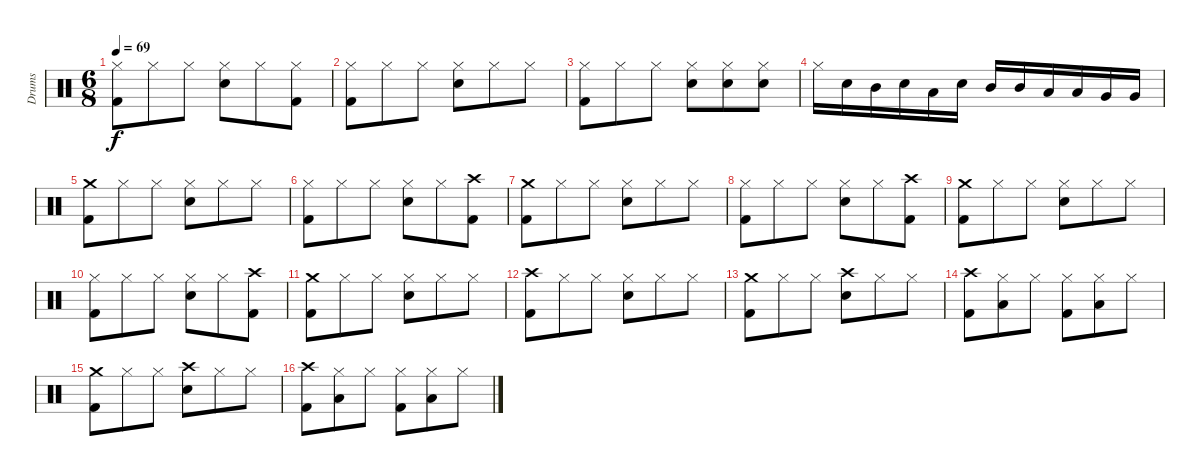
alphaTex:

\track ("Drums" "Drums") {instrument percussion}
\staff {score}
\articulation defaults
\ts (6 8)
\tempo 69
\clef neutral
\ks c
("Hi-Hat (closed)" "Kick (hit) 2").8{dy f} "Hi-Hat (closed)".8 "Hi-Hat (closed)".8 ("Hi-Hat (closed)" "Snare (hit) 2").8 "Hi-Hat (closed)".8 ("Hi-Hat (closed)" "Kick (hit) 2").8 |
("Hi-Hat (closed)" "Kick (hit) 2").8 "Hi-Hat (closed)".8 "Hi-Hat (closed)".8 ("Hi-Hat (closed)" "Snare (hit) 2").8 "Hi-Hat (closed)".8 "Hi-Hat (closed)".8 |
("Hi-Hat (closed)" "Kick (hit) 2").8 "Hi-Hat (closed)".8 "Hi-Hat (closed)".8 ("Hi-Hat (closed)" "Snare (hit) 2").8 ("Hi-Hat (closed)" "Snare (hit) 2").8 ("Hi-Hat (closed)" "Snare (hit) 2").8 |
"Hi-Hat (closed)".16 "Snare (hit) 2".16 "Mid Tom (hit)".16 "Snare (hit) 2".16 "Low Tom (hit)".16 "Snare (hit) 2".16 "Mid Tom (hit)".16 "Mid Tom (hit)".16 "Low Tom (hit)".16 "Low Tom (hit)".16 "Very Low Tom (hit)".16 "Very Low Tom (hit)".16 |
("Crash medium (hit)" "Kick (hit) 2").8 "Hi-Hat (closed)".8 "Hi-Hat (closed)".8 ("Hi-Hat (closed)" "Snare (hit) 2").8 "Hi-Hat (closed)".8 "Hi-Hat (closed)".8 |
("Hi-Hat (closed)" "Kick (hit) 2").8 "Hi-Hat (closed)".8 "Hi-Hat (closed)".8 ("Hi-Hat (closed)" "Snare (hit) 2").8 "Hi-Hat (closed)".8 ("Crash high (hit)" "Kick (hit) 2").8 |
("Crash medium (hit)" "Kick (hit) 2").8 "Hi-Hat (closed)".8 "Hi-Hat (closed)".8 ("Hi-Hat (closed)" "Snare (hit) 2").8 "Hi-Hat (closed)".8 "Hi-Hat (closed)".8 |
("Hi-Hat (closed)" "Kick (hit) 2").8 "Hi-Hat (closed)".8 "Hi-Hat (closed)".8 ("Hi-Hat (closed)" "Snare (hit) 2").8 "Hi-Hat (closed)".8 ("Crash high (hit)" "Kick (hit) 2").8 |
("Crash medium (hit)" "Kick (hit) 2").8 "Hi-Hat (closed)".8 "Hi-Hat (closed)".8 ("Hi-Hat (closed)" "Snare (hit) 2").8 "Hi-Hat (closed)".8 "Hi-Hat (closed)".8 |
("Hi-Hat (closed)" "Kick (hit) 2").8 "Hi-Hat (closed)".8 "Hi-Hat (closed)".8 ("Hi-Hat (closed)" "Snare (hit) 2").8 "Hi-Hat (closed)".8 ("Crash high (hit)" "Kick (hit) 2").8 |
("Crash medium (hit)" "Kick (hit) 2").8 "Hi-Hat (closed)".8 "Hi-Hat (closed)".8 ("Hi-Hat (closed)" "Snare (hit) 2").8 "Hi-Hat (closed)".8 "Hi-Hat (closed)".8 |
("Crash high (hit)" "Kick (hit) 2").8 "Hi-Hat (closed)".8 "Hi-Hat (closed)".8 ("Hi-Hat (closed)" "Snare (hit) 2").8 "Hi-Hat (closed)".8 "Hi-Hat (closed)".8 |
("Crash medium (hit)" "Kick (hit) 2").8 "Hi-Hat (closed)".8 "Hi-Hat (closed)".8 ("Crash high (hit)" "Snare (hit) 2").8 "Hi-Hat (closed)".8 "Hi-Hat (closed)".8 |
("Crash high (hit)" "Kick (hit) 2").8 ("Hi-Hat (closed)" "Low Tom (hit)").8 "Hi-Hat (closed)".8 ("Hi-Hat (closed)" "Kick (hit) 2").8 ("Hi-Hat (closed)" "Low Tom (hit)").8 "Hi-Hat (closed)".8 |
("Crash medium (hit)" "Kick (hit) 2").8 "Hi-Hat (closed)".8 "Hi-Hat (closed)".8 ("Crash high (hit)" "Snare (hit) 2").8 "Hi-Hat (closed)".8 "Hi-Hat (closed)".8 |
("Crash high (hit)" "Kick (hit) 2").8 ("Hi-Hat (closed)" "Low Tom (hit)").8 "Hi-Hat (closed)".8 ("Hi-Hat (closed)" "Kick (hit) 2").8 ("Hi-Hat (closed)" "Low Tom (hit)").8 "Hi-Hat (closed)".8
